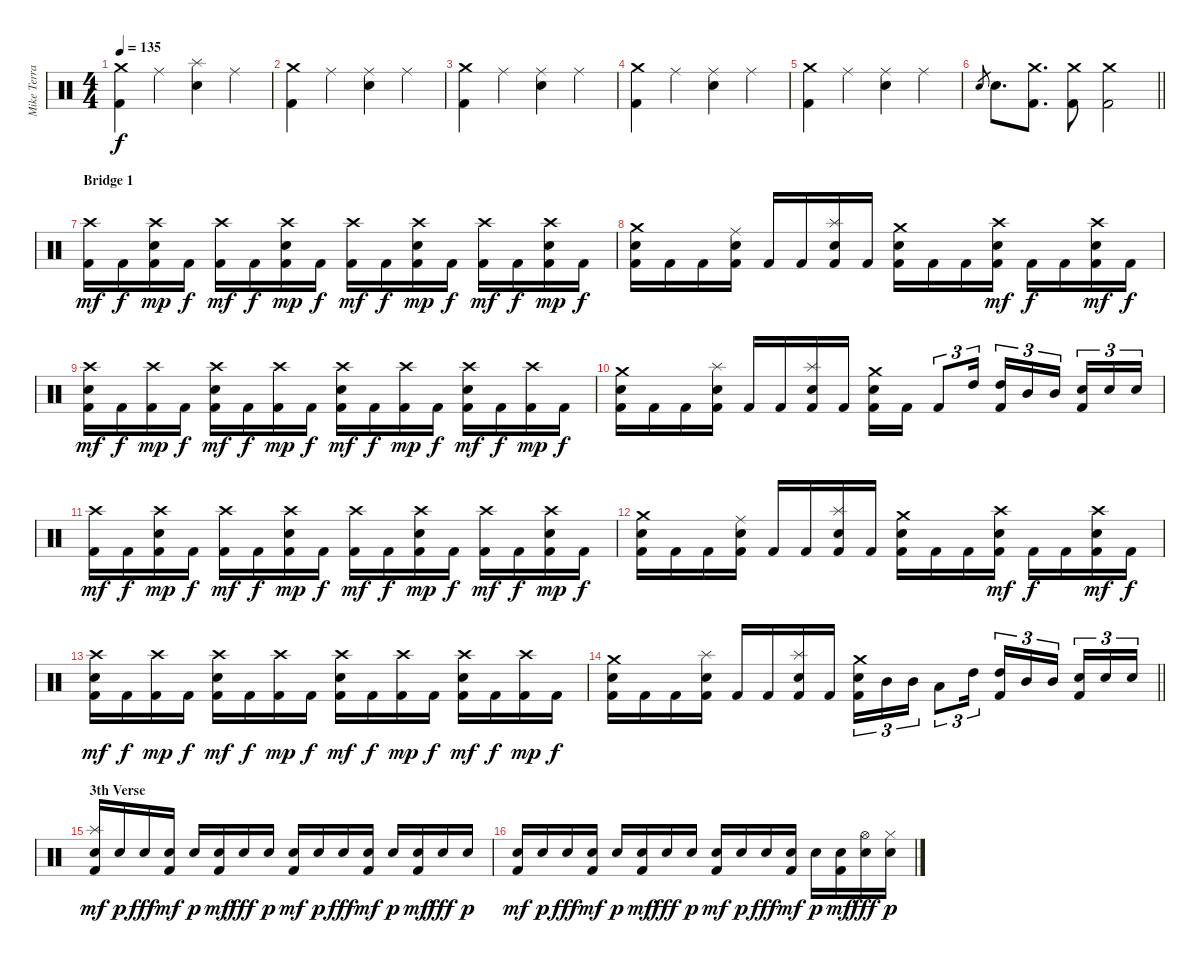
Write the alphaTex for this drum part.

\track ("Mike Terrana" "Mike Terra") {instrument percussion}
\staff {score}
\articulation defaults
\ts (4 4)
\tempo 135
\clef neutral
\ks c
("Crash medium (hit)" "Kick (hit) 2").4{dy f} "Ride (middle)".4 ("Splash (hit)" "Snare (hit) 2").4 "Ride (middle)".4 |
("Crash medium (hit)" "Kick (hit) 2").4 "Ride (middle)".4 ("Ride (middle)" "Snare (hit) 2").4 "Ride (middle)".4 |
("Crash medium (hit)" "Kick (hit) 2").4 "Ride (middle)".4 ("Ride (middle)" "Snare (hit) 2").4 "Ride (middle)".4 |
("Crash medium (hit)" "Kick (hit) 2").4 "Ride (middle)".4 ("Ride (middle)" "Snare (hit) 2").4 "Ride (middle)".4 |
("Crash medium (hit)" "Kick (hit) 2").4 "Ride (middle)".4 ("Ride (middle)" "Snare (hit) 2").4 "Ride (middle)".4 |
\barLineRight lightlight "Snare (hit) 2".8{gr} "Snare (hit) 2".8{d}
("Crash medium (hit)" "Kick (hit) 2").8{d} ("Crash medium (hit)" "Kick (hit) 2").8 ("Crash medium (hit)" "Kick (hit) 2").2 |
\section ("" "Bridge 1")
("Crash high (hit)" "Kick (hit) 2").16{dy mf} "Kick (hit) 2".16{dy f} ("Crash high (hit)" "Snare (hit) 2" "Kick (hit) 2").16{dy mp} "Kick (hit) 2".16{dy f} ("Crash high (hit)" "Kick (hit) 2").16{dy mf} "Kick (hit) 2".16{dy f} ("Crash high (hit)" "Snare (hit) 2" "Kick (hit) 2").16{dy mp} "Kick (hit) 2".16{dy f} ("Crash high (hit)" "Kick (hit) 2").16{dy mf} "Kick (hit) 2".16{dy f} ("Crash high (hit)" "Snare (hit) 2" "Kick (hit) 2").16{dy mp} "Kick (hit) 2".16{dy f} ("Crash high (hit)" "Kick (hit) 2").16{dy mf} "Kick (hit) 2".16{dy f} ("Crash high (hit)" "Snare (hit) 2" "Kick (hit) 2").16{dy mp} "Kick (hit) 2".16{dy f} |
("Crash medium (hit)" "Snare (hit) 2" "Kick (hit) 2").16 "Kick (hit) 2".16 "Kick (hit) 2".16 ("Ride (middle)" "Snare (hit) 2" "Kick (hit) 2").16 "Kick (hit) 2".16 "Kick (hit) 2".16 ("Splash (hit)" "Snare (hit) 2" "Kick (hit) 2").16 "Kick (hit) 2".16 ("Crash medium (hit)" "Snare (hit) 2" "Kick (hit) 2").16 "Kick (hit) 2".16 "Kick (hit) 2".16 ("Crash high (hit)" "Snare (hit) 2" "Kick (hit) 2").16{dy mf} "Kick (hit) 2".16{dy f} "Kick (hit) 2".16 ("Crash high (hit)" "Snare (hit) 2" "Kick (hit) 2").16{dy mf} "Kick (hit) 2".16{dy f} |
("Crash high (hit)" "Snare (hit) 2" "Kick (hit) 2").16{dy mf} "Kick (hit) 2".16{dy f} ("Crash high (hit)" "Kick (hit) 2").16{dy mp} "Kick (hit) 2".16{dy f} ("Crash high (hit)" "Snare (hit) 2" "Kick (hit) 2").16{dy mf} "Kick (hit) 2".16{dy f} ("Crash high (hit)" "Kick (hit) 2").16{dy mp} "Kick (hit) 2".16{dy f} ("Crash high (hit)" "Snare (hit) 2" "Kick (hit) 2").16{dy mf} "Kick (hit) 2".16{dy f} ("Crash high (hit)" "Kick (hit) 2").16{dy mp} "Kick (hit) 2".16{dy f} ("Crash high (hit)" "Snare (hit) 2" "Kick (hit) 2").16{dy mf} "Kick (hit) 2".16{dy f} ("Crash high (hit)" "Kick (hit) 2").16{dy mp} "Kick (hit) 2".16{dy f} |
("Crash medium (hit)" "Snare (hit) 2" "Kick (hit) 2").16 "Kick (hit) 2".16 "Kick (hit) 2".16 ("Splash (hit)" "Snare (hit) 2" "Kick (hit) 2").16 "Kick (hit) 2".16 "Kick (hit) 2".16 ("Splash (hit)" "Snare (hit) 2" "Kick (hit) 2").16 "Kick (hit) 2".16 ("Crash medium (hit)" "Snare (hit) 2" "Kick (hit) 2").16 "Kick (hit) 2".16 "Kick (hit) 2".8{tu (3 2)} "High Tom (hit)".16{tu (3 2)} ("High Tom (hit)" "Kick (hit) 2").16{tu (3 2)} "Mid Tom (hit)".16{tu (3 2)} "Mid Tom (hit)".16{tu (3 2) beam splitsecondary} ("Snare (hit) 2" "Kick (hit) 2").16{tu (3 2)} "Snare (hit) 2".16{tu (3 2)} "Snare (hit) 2".16{tu (3 2)} |
("Crash high (hit)" "Kick (hit) 2").16{dy mf} "Kick (hit) 2".16{dy f} ("Crash high (hit)" "Snare (hit) 2" "Kick (hit) 2").16{dy mp} "Kick (hit) 2".16{dy f} ("Crash high (hit)" "Kick (hit) 2").16{dy mf} "Kick (hit) 2".16{dy f} ("Crash high (hit)" "Snare (hit) 2" "Kick (hit) 2").16{dy mp} "Kick (hit) 2".16{dy f} ("Crash high (hit)" "Kick (hit) 2").16{dy mf} "Kick (hit) 2".16{dy f} ("Crash high (hit)" "Snare (hit) 2" "Kick (hit) 2").16{dy mp} "Kick (hit) 2".16{dy f} ("Crash high (hit)" "Kick (hit) 2").16{dy mf} "Kick (hit) 2".16{dy f} ("Crash high (hit)" "Snare (hit) 2" "Kick (hit) 2").16{dy mp} "Kick (hit) 2".16{dy f} |
("Crash medium (hit)" "Snare (hit) 2" "Kick (hit) 2").16 "Kick (hit) 2".16 "Kick (hit) 2".16 ("Ride (middle)" "Snare (hit) 2" "Kick (hit) 2").16 "Kick (hit) 2".16 "Kick (hit) 2".16 ("Splash (hit)" "Snare (hit) 2" "Kick (hit) 2").16 "Kick (hit) 2".16 ("Crash medium (hit)" "Snare (hit) 2" "Kick (hit) 2").16 "Kick (hit) 2".16 "Kick (hit) 2".16 ("Crash high (hit)" "Snare (hit) 2" "Kick (hit) 2").16{dy mf} "Kick (hit) 2".16{dy f} "Kick (hit) 2".16 ("Crash high (hit)" "Snare (hit) 2" "Kick (hit) 2").16{dy mf} "Kick (hit) 2".16{dy f} |
("Crash high (hit)" "Snare (hit) 2" "Kick (hit) 2").16{dy mf} "Kick (hit) 2".16{dy f} ("Crash high (hit)" "Kick (hit) 2").16{dy mp} "Kick (hit) 2".16{dy f} ("Crash high (hit)" "Snare (hit) 2" "Kick (hit) 2").16{dy mf} "Kick (hit) 2".16{dy f} ("Crash high (hit)" "Kick (hit) 2").16{dy mp} "Kick (hit) 2".16{dy f} ("Crash high (hit)" "Snare (hit) 2" "Kick (hit) 2").16{dy mf} "Kick (hit) 2".16{dy f} ("Crash high (hit)" "Kick (hit) 2").16{dy mp} "Kick (hit) 2".16{dy f} ("Crash high (hit)" "Snare (hit) 2" "Kick (hit) 2").16{dy mf} "Kick (hit) 2".16{dy f} ("Crash high (hit)" "Kick (hit) 2").16{dy mp} "Kick (hit) 2".16{dy f} |
\barLineRight lightlight
("Crash medium (hit)" "Snare (hit) 2" "Kick (hit) 2").16 "Kick (hit) 2".16 "Kick (hit) 2".16 ("Splash (hit)" "Snare (hit) 2" "Kick (hit) 2").16 "Kick (hit) 2".16 "Kick (hit) 2".16 ("Splash (hit)" "Snare (hit) 2" "Kick (hit) 2").16 "Kick (hit) 2".16 ("Crash medium (hit)" "Snare (hit) 2" "Kick (hit) 2").16{tu (3 2)} "Mid Tom (hit)".16{tu (3 2)} "Mid Tom (hit)".16{tu (3 2)} "Low Tom (hit)".8{tu (3 2)} "High Tom (hit)".16{tu (3 2)} ("High Tom (hit)" "Kick (hit) 2").16{tu (3 2)} "Mid Tom (hit)".16{tu (3 2)} "Mid Tom (hit)".16{tu (3 2) beam splitsecondary} ("Snare (hit) 2" "Kick (hit) 2").16{tu (3 2)} "Snare (hit) 2".16{tu (3 2)} "Snare (hit) 2".16{tu (3 2)} |
\section ("" "3th Verse")
("Splash (hit)" "Snare (hit) 2" "Kick (hit) 2").16{dy mf} "Snare (hit) 2".16{dy p} "Snare (hit) 2".16{dy fff} ("Snare (hit) 2" "Kick (hit) 2").16{dy mf} "Snare (hit) 2".16{dy p} ("Snare (hit) 2" "Kick (hit) 2").16{dy mf} "Snare (hit) 2".16{dy fff} "Snare (hit) 2".16{dy p} ("Snare (hit) 2" "Kick (hit) 2").16{dy mf} "Snare (hit) 2".16{dy p} "Snare (hit) 2".16{dy fff} ("Snare (hit) 2" "Kick (hit) 2").16{dy mf} "Snare (hit) 2".16{dy p} ("Snare (hit) 2" "Kick (hit) 2").16{dy mf} "Snare (hit) 2".16{dy fff} "Snare (hit) 2".16{dy p} |
("Snare (hit) 2" "Kick (hit) 2").16{dy mf} "Snare (hit) 2".16{dy p} "Snare (hit) 2".16{dy fff} ("Snare (hit) 2" "Kick (hit) 2").16{dy mf} "Snare (hit) 2".16{dy p} ("Snare (hit) 2" "Kick (hit) 2").16{dy mf} "Snare (hit) 2".16{dy fff} "Snare (hit) 2".16{dy p} ("Snare (hit) 2" "Kick (hit) 2").16{dy mf} "Snare (hit) 2".16{dy p} "Snare (hit) 2".16{dy fff} ("Snare (hit) 2" "Kick (hit) 2").16{dy mf} "Snare (hit) 2".16{dy p} ("Snare (hit) 2" "Kick (hit) 2").16{dy mf} ("Hi-Hat (open)" "Snare (hit) 2").16{dy fff} ("Hi-Hat (closed)" "Snare (hit) 2").16{dy p}
